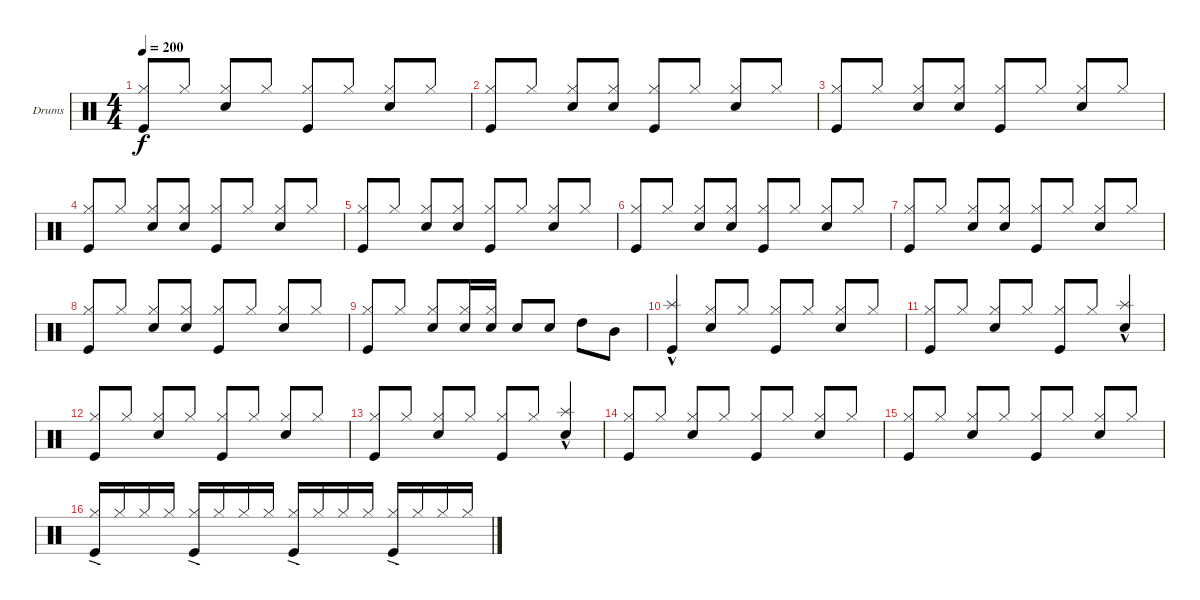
\defaultSystemsLayout 4
\bracketExtendMode groupsimilarinstruments
\firstSystemTrackNameOrientation horizontal
\otherSystemsTrackNameOrientation horizontal
\track ("Drumkit" "Drums") {instrument percussion}
\staff {score}
\articulation defaults
\ts (4 4)
\tempo 200
\clef neutral
\ks c
("Hi-Hat (closed)" "Kick (hit)").8{dy f beam invert} "Hi-Hat (closed)".8 ("Hi-Hat (closed)" "Snare (hit) 2").8{beam invert} "Hi-Hat (closed)".8 ("Hi-Hat (closed)" "Kick (hit)").8{beam invert} "Hi-Hat (closed)".8 ("Hi-Hat (closed)" "Snare (hit) 2").8{beam invert} "Hi-Hat (closed)".8 |
("Hi-Hat (closed)" "Kick (hit)").8{beam invert} "Hi-Hat (closed)".8 ("Hi-Hat (closed)" "Snare (hit) 2").8{beam invert} ("Hi-Hat (closed)" "Snare (hit) 2").8 ("Hi-Hat (closed)" "Kick (hit)").8{beam invert} "Hi-Hat (closed)".8 ("Hi-Hat (closed)" "Snare (hit) 2").8{beam invert} "Hi-Hat (closed)".8 |
("Hi-Hat (closed)" "Kick (hit)").8{beam invert} "Hi-Hat (closed)".8 ("Hi-Hat (closed)" "Snare (hit) 2").8{beam invert} ("Hi-Hat (closed)" "Snare (hit) 2").8 ("Hi-Hat (closed)" "Kick (hit)").8{beam invert} "Hi-Hat (closed)".8 ("Hi-Hat (closed)" "Snare (hit) 2").8{beam invert} "Hi-Hat (closed)".8 |
("Hi-Hat (closed)" "Kick (hit)").8{beam invert} "Hi-Hat (closed)".8 ("Hi-Hat (closed)" "Snare (hit) 2").8{beam invert} ("Hi-Hat (closed)" "Snare (hit) 2").8 ("Hi-Hat (closed)" "Kick (hit)").8{beam invert} "Hi-Hat (closed)".8 ("Hi-Hat (closed)" "Snare (hit) 2").8{beam invert} "Hi-Hat (closed)".8 |
("Hi-Hat (closed)" "Kick (hit)").8{beam invert} "Hi-Hat (closed)".8 ("Hi-Hat (closed)" "Snare (hit) 2").8{beam invert} ("Hi-Hat (closed)" "Snare (hit) 2").8 ("Hi-Hat (closed)" "Kick (hit)").8{beam invert} "Hi-Hat (closed)".8 ("Hi-Hat (closed)" "Snare (hit) 2").8{beam invert} "Hi-Hat (closed)".8 |
("Hi-Hat (closed)" "Kick (hit)").8{beam invert} "Hi-Hat (closed)".8 ("Hi-Hat (closed)" "Snare (hit) 2").8{beam invert} ("Hi-Hat (closed)" "Snare (hit) 2").8 ("Hi-Hat (closed)" "Kick (hit)").8{beam invert} "Hi-Hat (closed)".8 ("Hi-Hat (closed)" "Snare (hit) 2").8{beam invert} "Hi-Hat (closed)".8 |
("Hi-Hat (closed)" "Kick (hit)").8{beam invert} "Hi-Hat (closed)".8 ("Hi-Hat (closed)" "Snare (hit) 2").8{beam invert} ("Hi-Hat (closed)" "Snare (hit) 2").8 ("Hi-Hat (closed)" "Kick (hit)").8{beam invert} "Hi-Hat (closed)".8 ("Hi-Hat (closed)" "Snare (hit) 2").8{beam invert} "Hi-Hat (closed)".8 |
("Hi-Hat (closed)" "Kick (hit)").8{beam invert} "Hi-Hat (closed)".8 ("Hi-Hat (closed)" "Snare (hit) 2").8{beam invert} ("Hi-Hat (closed)" "Snare (hit) 2").8 ("Hi-Hat (closed)" "Kick (hit)").8{beam invert} "Hi-Hat (closed)".8 ("Hi-Hat (closed)" "Snare (hit) 2").8{beam invert} "Hi-Hat (closed)".8 |
("Hi-Hat (closed)" "Kick (hit)").8{beam invert} "Hi-Hat (closed)".8 ("Hi-Hat (closed)" "Snare (hit) 2").8{beam invert} ("Hi-Hat (closed)" "Snare (hit) 2").16 ("Hi-Hat (closed)" "Snare (hit) 2").16 "Snare (hit) 2".8 "Snare (hit) 2".8{beam invert} "High Tom (hit)".8 "Mid Tom (hit)".8 |
("Kick (hit)" "Splash (hit)"{hac}).4 ("Hi-Hat (closed)" "Snare (hit) 2").8{beam invert} "Hi-Hat (closed)".8 ("Hi-Hat (closed)" "Kick (hit)").8{beam invert} "Hi-Hat (closed)".8 ("Hi-Hat (closed)" "Snare (hit) 2").8{beam invert} "Hi-Hat (closed)".8 |
("Hi-Hat (closed)" "Kick (hit)").8{beam invert} "Hi-Hat (closed)".8 ("Hi-Hat (closed)" "Snare (hit) 2").8{beam invert} "Hi-Hat (closed)".8 ("Hi-Hat (closed)" "Kick (hit)").8{beam invert} "Hi-Hat (closed)".8 ("Snare (hit) 2" "Splash (hit)"{hac}).4{beam invert} |
("Hi-Hat (closed)" "Kick (hit)").8{beam invert} "Hi-Hat (closed)".8 ("Hi-Hat (closed)" "Snare (hit) 2").8{beam invert} "Hi-Hat (closed)".8 ("Hi-Hat (closed)" "Kick (hit)").8{beam invert} "Hi-Hat (closed)".8 ("Hi-Hat (closed)" "Snare (hit) 2").8{beam invert} "Hi-Hat (closed)".8 |
("Hi-Hat (closed)" "Kick (hit)").8{beam invert} "Hi-Hat (closed)".8 ("Hi-Hat (closed)" "Snare (hit) 2").8{beam invert} "Hi-Hat (closed)".8 ("Hi-Hat (closed)" "Kick (hit)").8{beam invert} "Hi-Hat (closed)".8 ("Snare (hit) 2" "Splash (hit)"{hac}).4{beam invert} |
("Hi-Hat (closed)" "Kick (hit)").8{beam invert} "Hi-Hat (closed)".8 ("Hi-Hat (closed)" "Snare (hit) 2").8{beam invert} "Hi-Hat (closed)".8 ("Hi-Hat (closed)" "Kick (hit)").8{beam invert} "Hi-Hat (closed)".8 ("Hi-Hat (closed)" "Snare (hit) 2").8{beam invert} "Hi-Hat (closed)".8 |
("Hi-Hat (closed)" "Kick (hit)").8{beam invert} "Hi-Hat (closed)".8 ("Hi-Hat (closed)" "Snare (hit) 2").8{beam invert} "Hi-Hat (closed)".8 ("Hi-Hat (closed)" "Kick (hit)").8{beam invert} "Hi-Hat (closed)".8 ("Hi-Hat (closed)" "Snare (hit) 2").8{beam invert} "Hi-Hat (closed)".8 |
("Hi-Hat (closed)"{ac} "Kick (hit)").16{beam invert} "Hi-Hat (closed)".16 "Hi-Hat (closed)".16 "Hi-Hat (closed)".16 ("Hi-Hat (closed)"{ac} "Kick (hit)").16{beam invert} "Hi-Hat (closed)".16 "Hi-Hat (closed)".16 "Hi-Hat (closed)".16 ("Hi-Hat (closed)"{ac} "Kick (hit)").16{beam invert} "Hi-Hat (closed)".16 "Hi-Hat (closed)".16 "Hi-Hat (closed)".16 ("Hi-Hat (closed)"{ac} "Kick (hit)").16{beam invert} "Hi-Hat (closed)".16 "Hi-Hat (closed)".16 "Hi-Hat (closed)".16
